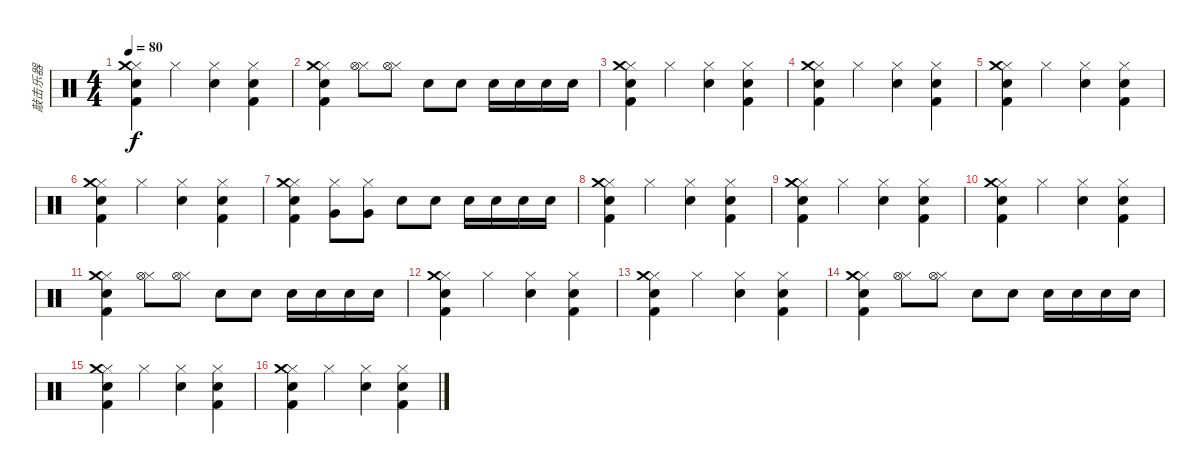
\track ("敲击乐器" "敲击乐器") {instrument percussion}
\staff {score}
\articulation defaults
\ts (4 4)
\tempo 80
\clef neutral
\ks c
("Hi-Hat (closed)" "Snare (hit) 2" "Kick (hit) 2" "Crash medium (hit)").4{dy f} "Hi-Hat (closed)".4 ("Hi-Hat (closed)" "Hand Clap (hit)").4 ("Hi-Hat (closed)" "Snare (hit) 2" "Kick (hit) 2").4 |
("Hi-Hat (closed)" "Snare (hit) 2" "Kick (hit) 2" "Crash medium (hit)").4 ("Hi-Hat (closed)" "Hi-Hat (open)").8 ("Hi-Hat (closed)" "Hi-Hat (open)").8 "Electric Snare (hit)".8 "Electric Snare (hit)".8 "Snare (hit) 2".16 "Snare (hit) 2".16 "Snare (hit) 2".16 "Snare (hit) 2".16 |
("Hi-Hat (closed)" "Snare (hit) 2" "Kick (hit) 2" "Crash medium (hit)").4 "Hi-Hat (closed)".4 ("Hi-Hat (closed)" "Hand Clap (hit)").4 ("Hi-Hat (closed)" "Snare (hit) 2" "Kick (hit) 2").4 |
("Hi-Hat (closed)" "Snare (hit) 2" "Kick (hit) 2" "Crash medium (hit)").4 "Hi-Hat (closed)".4 ("Hi-Hat (closed)" "Hand Clap (hit)").4 ("Hi-Hat (closed)" "Snare (hit) 2" "Kick (hit) 2").4 |
("Hi-Hat (closed)" "Snare (hit) 2" "Kick (hit) 2" "Crash medium (hit)").4 "Hi-Hat (closed)".4 ("Hi-Hat (closed)" "Hand Clap (hit)").4 ("Hi-Hat (closed)" "Snare (hit) 2" "Kick (hit) 2").4 |
("Hi-Hat (closed)" "Snare (hit) 2" "Kick (hit) 2" "Crash medium (hit)").4 "Hi-Hat (closed)".4 ("Hi-Hat (closed)" "Hand Clap (hit)").4 ("Hi-Hat (closed)" "Snare (hit) 2" "Kick (hit) 2").4 |
("Hi-Hat (closed)" "Snare (hit) 2" "Kick (hit) 2" "Crash medium (hit)").4 ("Hi-Hat (closed)" "Very Low Tom (hit)").8 ("Hi-Hat (closed)" "Very Low Tom (hit)").8 "Snare (hit) 2".8 "Snare (hit) 2".8 "Electric Snare (hit)".16 "Electric Snare (hit)".16 "Electric Snare (hit)".16 "Electric Snare (hit)".16 |
("Hi-Hat (closed)" "Snare (hit) 2" "Kick (hit) 2" "Crash medium (hit)").4 "Hi-Hat (closed)".4 ("Hi-Hat (closed)" "Hand Clap (hit)").4 ("Hi-Hat (closed)" "Snare (hit) 2" "Kick (hit) 2").4 |
("Hi-Hat (closed)" "Snare (hit) 2" "Kick (hit) 2" "Crash medium (hit)").4 "Hi-Hat (closed)".4 ("Hi-Hat (closed)" "Hand Clap (hit)").4 ("Hi-Hat (closed)" "Snare (hit) 2" "Kick (hit) 2").4 |
("Hi-Hat (closed)" "Snare (hit) 2" "Kick (hit) 2" "Crash medium (hit)").4 "Hi-Hat (closed)".4 ("Hi-Hat (closed)" "Hand Clap (hit)").4 ("Hi-Hat (closed)" "Snare (hit) 2" "Kick (hit) 2").4 |
("Hi-Hat (closed)" "Snare (hit) 2" "Kick (hit) 2" "Crash medium (hit)").4 ("Hi-Hat (closed)" "Hi-Hat (open)").8 ("Hi-Hat (closed)" "Hi-Hat (open)").8 "Electric Snare (hit)".8 "Electric Snare (hit)".8 "Snare (hit) 2".16 "Snare (hit) 2".16 "Snare (hit) 2".16 "Snare (hit) 2".16 |
("Hi-Hat (closed)" "Snare (hit) 2" "Kick (hit) 2" "Crash medium (hit)").4 "Hi-Hat (closed)".4 ("Hi-Hat (closed)" "Hand Clap (hit)").4 ("Hi-Hat (closed)" "Snare (hit) 2" "Kick (hit) 2").4 |
("Hi-Hat (closed)" "Snare (hit) 2" "Kick (hit) 2" "Crash medium (hit)").4 "Hi-Hat (closed)".4 ("Hi-Hat (closed)" "Hand Clap (hit)").4 ("Hi-Hat (closed)" "Snare (hit) 2" "Kick (hit) 2").4 |
("Hi-Hat (closed)" "Snare (hit) 2" "Kick (hit) 2" "Crash medium (hit)").4 ("Hi-Hat (closed)" "Hi-Hat (open)").8 ("Hi-Hat (closed)" "Hi-Hat (open)").8 "Electric Snare (hit)".8 "Electric Snare (hit)".8 "Snare (hit) 2".16 "Snare (hit) 2".16 "Snare (hit) 2".16 "Snare (hit) 2".16 |
("Hi-Hat (closed)" "Snare (hit) 2" "Kick (hit) 2" "Crash medium (hit)").4 "Hi-Hat (closed)".4 ("Hi-Hat (closed)" "Hand Clap (hit)").4 ("Hi-Hat (closed)" "Snare (hit) 2" "Kick (hit) 2").4 |
("Hi-Hat (closed)" "Snare (hit) 2" "Kick (hit) 2" "Crash medium (hit)").4 "Hi-Hat (closed)".4 ("Hi-Hat (closed)" "Hand Clap (hit)").4 ("Hi-Hat (closed)" "Snare (hit) 2" "Kick (hit) 2").4
